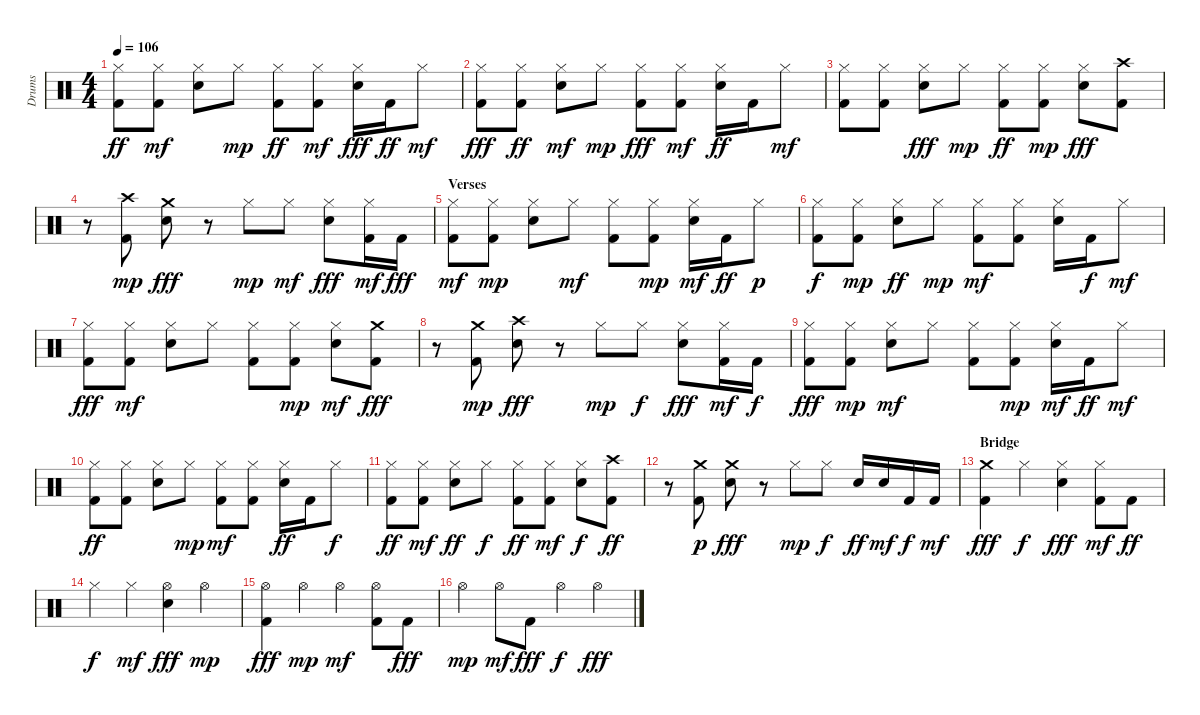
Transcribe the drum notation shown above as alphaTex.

\track ("Drums" "Drums") {instrument percussion}
\staff {score}
\articulation defaults
\ts (4 4)
\tempo 106
\clef neutral
\ks c
("Kick (hit) 2" "Hi-Hat (closed)").8{dy ff} ("Kick (hit) 2" "Hi-Hat (closed)").8{dy mf} ("Snare (hit) 2" "Hi-Hat (closed)").8 "Hi-Hat (closed)".8{dy mp} ("Hi-Hat (closed)" "Kick (hit) 2").8{dy ff} ("Hi-Hat (closed)" "Kick (hit) 2").8{dy mf} ("Snare (hit) 2" "Hi-Hat (closed)").16{dy fff} "Kick (hit) 2".16{dy ff} "Hi-Hat (closed)".8{dy mf} |
("Hi-Hat (closed)" "Kick (hit) 2").8{dy fff} ("Hi-Hat (closed)" "Kick (hit) 2").8{dy ff} ("Snare (hit) 2" "Hi-Hat (closed)").8{dy mf} "Hi-Hat (closed)".8{dy mp} ("Kick (hit) 2" "Hi-Hat (closed)").8{dy fff} ("Kick (hit) 2" "Hi-Hat (closed)").8{dy mf} ("Snare (hit) 2" "Hi-Hat (closed)").16{dy ff} "Kick (hit) 2".16 "Hi-Hat (closed)".8{dy mf} |
("Kick (hit) 2" "Hi-Hat (closed)").8 ("Kick (hit) 2" "Hi-Hat (closed)").8 ("Snare (hit) 2" "Hi-Hat (closed)").8{dy fff} "Hi-Hat (closed)".8{dy mp} ("Kick (hit) 2" "Hi-Hat (closed)").8{dy ff} ("Hi-Hat (closed)" "Kick (hit) 2").8{dy mp} ("Snare (hit) 2" "Hi-Hat (closed)").8{dy fff} ("Crash high (hit)" "Kick (hit) 2").8 |
r.8 ("Kick (hit) 2" "Crash high (hit)").8{dy mp} ("Crash medium (hit)" "Snare (hit) 2").8{dy fff} r.8 "Hi-Hat (closed)".8{dy mp} "Hi-Hat (closed)".8{dy mf} ("Snare (hit) 2" "Hi-Hat (closed)").8{dy fff} ("Kick (hit) 2" "Hi-Hat (closed)").16{dy mf} "Kick (hit) 2".16{dy fff} |
\section ("" "Verses")
("Kick (hit) 2" "Hi-Hat (closed)").8{dy mf} ("Kick (hit) 2" "Hi-Hat (closed)").8{dy mp} ("Snare (hit) 2" "Hi-Hat (closed)").8 "Hi-Hat (closed)".8{dy mf} ("Hi-Hat (closed)" "Kick (hit) 2").8 ("Hi-Hat (closed)" "Kick (hit) 2").8{dy mp} ("Hi-Hat (closed)" "Snare (hit) 2").16{dy mf} "Kick (hit) 2".16{dy ff} "Hi-Hat (closed)".8{dy p} |
("Hi-Hat (closed)" "Kick (hit) 2").8{dy f} ("Kick (hit) 2" "Hi-Hat (closed)").8{dy mp} ("Snare (hit) 2" "Hi-Hat (closed)").8{dy ff} "Hi-Hat (closed)".8{dy mp} ("Kick (hit) 2" "Hi-Hat (closed)").8{dy mf} ("Kick (hit) 2" "Hi-Hat (closed)").8 ("Snare (hit) 2" "Hi-Hat (closed)").16 "Kick (hit) 2".16{dy f} "Hi-Hat (closed)".8{dy mf} |
("Kick (hit) 2" "Hi-Hat (closed)").8{dy fff} ("Kick (hit) 2" "Hi-Hat (closed)").8{dy mf} ("Snare (hit) 2" "Hi-Hat (closed)").8 "Hi-Hat (closed)".8 ("Kick (hit) 2" "Hi-Hat (closed)").8 ("Kick (hit) 2" "Hi-Hat (closed)").8{dy mp} ("Snare (hit) 2" "Hi-Hat (closed)").8{dy mf} ("Kick (hit) 2" "Crash medium (hit)").8{dy fff} |
r.8 ("Kick (hit) 2" "Crash medium (hit)").8{dy mp} ("Crash high (hit)" "Snare (hit) 2").8{dy fff} r.8 "Hi-Hat (closed)".8{dy mp} "Hi-Hat (closed)".8{dy f} ("Hi-Hat (closed)" "Snare (hit) 2").8{dy fff} ("Hi-Hat (closed)" "Kick (hit) 2").16{dy mf} "Kick (hit) 2".16{dy f} |
("Hi-Hat (closed)" "Kick (hit) 2").8{dy fff} ("Kick (hit) 2" "Hi-Hat (closed)").8{dy mp} ("Snare (hit) 2" "Hi-Hat (closed)").8{dy mf} "Hi-Hat (closed)".8 ("Kick (hit) 2" "Hi-Hat (closed)").8 ("Hi-Hat (closed)" "Kick (hit) 2").8{dy mp} ("Snare (hit) 2" "Hi-Hat (closed)").16{dy mf} "Kick (hit) 2".16{dy ff} "Hi-Hat (closed)".8{dy mf} |
("Hi-Hat (closed)" "Kick (hit) 2").8{dy ff} ("Hi-Hat (closed)" "Kick (hit) 2").8 ("Snare (hit) 2" "Hi-Hat (closed)").8 "Hi-Hat (closed)".8{dy mp} ("Kick (hit) 2" "Hi-Hat (closed)").8{dy mf} ("Kick (hit) 2" "Hi-Hat (closed)").8 ("Snare (hit) 2" "Hi-Hat (closed)").16{dy ff} "Kick (hit) 2".16 "Hi-Hat (closed)".8{dy f} |
("Kick (hit) 2" "Hi-Hat (closed)").8{dy ff} ("Kick (hit) 2" "Hi-Hat (closed)").8{dy mf} ("Snare (hit) 2" "Hi-Hat (closed)").8{dy ff} "Hi-Hat (closed)".8{dy f} ("Kick (hit) 2" "Hi-Hat (closed)").8{dy ff} ("Kick (hit) 2" "Hi-Hat (closed)").8{dy mf} ("Hi-Hat (closed)" "Snare (hit) 2").8{dy f} ("Kick (hit) 2" "Crash high (hit)").8{dy ff} |
r.8 ("Kick (hit) 2" "Crash medium (hit)").8{dy p} ("Crash medium (hit)" "Snare (hit) 2").8{dy fff} r.8 "Hi-Hat (closed)".8{dy mp} "Hi-Hat (closed)".8{dy f} "Snare (hit) 2".16{dy ff} "Snare (hit) 2".16{dy mf} "Kick (hit) 2".16{dy f} "Kick (hit) 2".16{dy mf} |
\section ("" "Bridge")
("Crash medium (hit)" "Kick (hit) 2").4{dy fff} "Hi-Hat (closed)".4{dy f} ("Hi-Hat (closed)" "Snare (hit) 2").4{dy fff} ("Hi-Hat (closed)" "Kick (hit) 2").8{dy mf} "Kick (hit) 2".8{dy ff} |
"Hi-Hat (closed)".4{dy f} "Hi-Hat (closed)".4{dy mf} ("Hi-Hat (open)" "Snare (hit) 2").4{dy fff} "Hi-Hat (open)".4{dy mp} |
("Hi-Hat (open)" "Kick (hit) 2").4{dy fff} "Hi-Hat (open)".4{dy mp} "Hi-Hat (open)".4{dy mf} ("Hi-Hat (open)" "Kick (hit) 2").8 "Kick (hit) 2".8{dy fff} |
"Hi-Hat (open)".4{dy mp} "Hi-Hat (open)".8{dy mf} "Kick (hit) 2".8{dy fff} "Hi-Hat (open)".4{dy f} "Hi-Hat (open)".4{dy fff}
